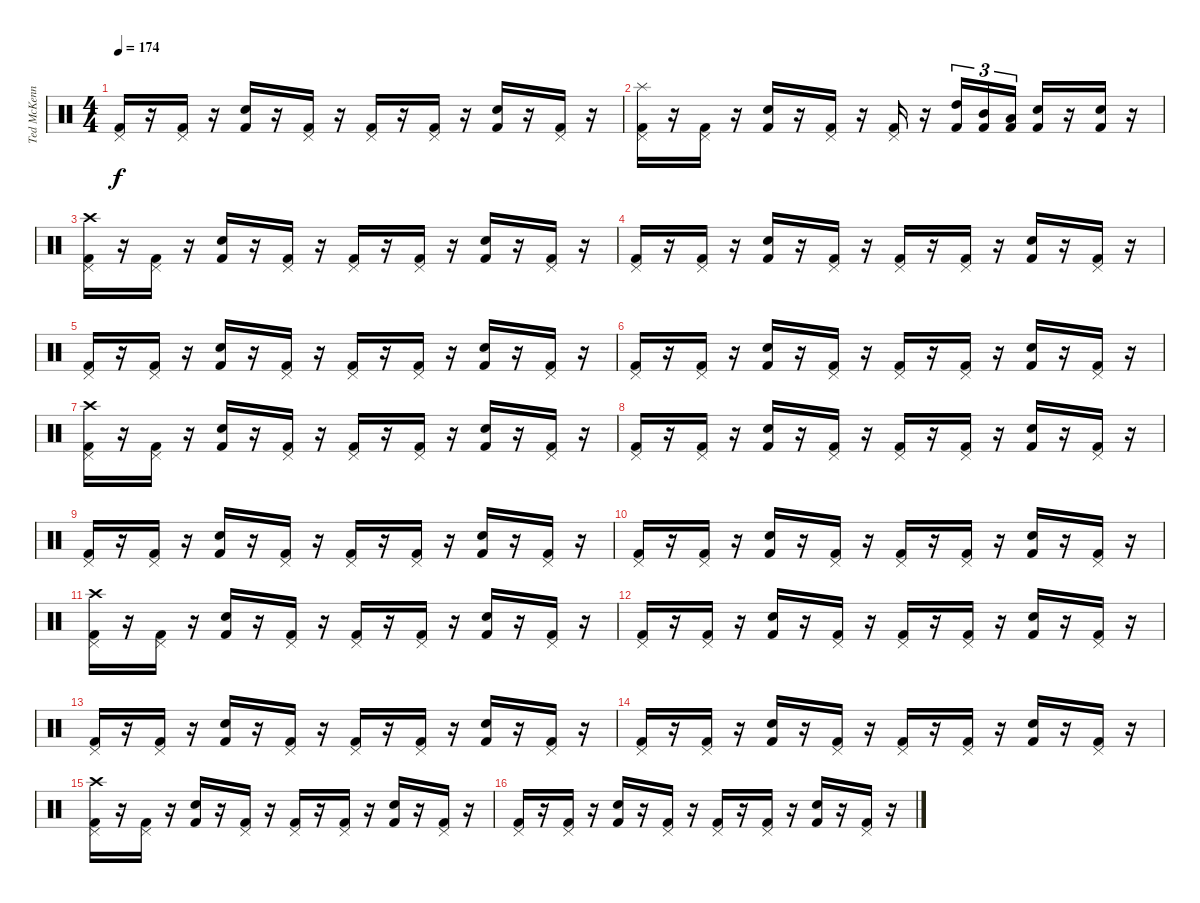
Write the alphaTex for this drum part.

\track ("Ted McKenna" "Ted McKenn") {instrument percussion}
\staff {score}
\articulation defaults
\ts (4 4)
\tempo 174
\clef neutral
\ks c
("Pedal Hi-Hat (hit)" "Kick (hit) 2").16{dy f} r.16 ("Pedal Hi-Hat (hit)" "Kick (hit) 2").16 r.16 ("Snare (hit) 2" "Kick (hit) 2").16 r.16 ("Pedal Hi-Hat (hit)" "Kick (hit) 2").16 r.16 ("Pedal Hi-Hat (hit)" "Kick (hit) 2").16 r.16 ("Pedal Hi-Hat (hit)" "Kick (hit) 2").16 r.16 ("Snare (hit) 2" "Kick (hit) 2").16 r.16 ("Pedal Hi-Hat (hit)" "Kick (hit) 2").16 r.16 |
("Splash (hit)" "Pedal Hi-Hat (hit)" "Kick (hit) 2").16 r.16 ("Pedal Hi-Hat (hit)" "Kick (hit) 2").16 r.16 ("Snare (hit) 2" "Kick (hit) 2").16 r.16 ("Pedal Hi-Hat (hit)" "Kick (hit) 2").16 r.16 ("Pedal Hi-Hat (hit)" "Kick (hit) 2").16 r.16 ("High Tom (hit)" "Kick (hit) 2").16{tu (3 2)} ("Mid Tom (hit)" "Kick (hit) 2").16{tu (3 2)} ("Low Tom (hit)" "Kick (hit) 2").16{tu (3 2)} ("Electric Snare (hit)" "Kick (hit) 2").16 r.16 ("Snare (hit) 2" "Kick (hit) 2").16 r.16 |
("Crash high (hit)" "Pedal Hi-Hat (hit)" "Kick (hit) 2").16 r.16 ("Pedal Hi-Hat (hit)" "Kick (hit) 2").16 r.16 ("Snare (hit) 2" "Kick (hit) 2").16 r.16 ("Pedal Hi-Hat (hit)" "Kick (hit) 2").16 r.16 ("Pedal Hi-Hat (hit)" "Kick (hit) 2").16 r.16 ("Pedal Hi-Hat (hit)" "Kick (hit) 2").16 r.16 ("Snare (hit) 2" "Kick (hit) 2").16 r.16 ("Pedal Hi-Hat (hit)" "Kick (hit) 2").16 r.16 |
("Pedal Hi-Hat (hit)" "Kick (hit) 2").16 r.16 ("Pedal Hi-Hat (hit)" "Kick (hit) 2").16 r.16 ("Snare (hit) 2" "Kick (hit) 2").16 r.16 ("Pedal Hi-Hat (hit)" "Kick (hit) 2").16 r.16 ("Pedal Hi-Hat (hit)" "Kick (hit) 2").16 r.16 ("Pedal Hi-Hat (hit)" "Kick (hit) 2").16 r.16 ("Snare (hit) 2" "Kick (hit) 2").16 r.16 ("Pedal Hi-Hat (hit)" "Kick (hit) 2").16 r.16 |
("Pedal Hi-Hat (hit)" "Kick (hit) 2").16 r.16 ("Pedal Hi-Hat (hit)" "Kick (hit) 2").16 r.16 ("Snare (hit) 2" "Kick (hit) 2").16 r.16 ("Pedal Hi-Hat (hit)" "Kick (hit) 2").16 r.16 ("Pedal Hi-Hat (hit)" "Kick (hit) 2").16 r.16 ("Pedal Hi-Hat (hit)" "Kick (hit) 2").16 r.16 ("Snare (hit) 2" "Kick (hit) 2").16 r.16 ("Pedal Hi-Hat (hit)" "Kick (hit) 2").16 r.16 |
("Pedal Hi-Hat (hit)" "Kick (hit) 2").16 r.16 ("Pedal Hi-Hat (hit)" "Kick (hit) 2").16 r.16 ("Snare (hit) 2" "Kick (hit) 2").16 r.16 ("Pedal Hi-Hat (hit)" "Kick (hit) 2").16 r.16 ("Pedal Hi-Hat (hit)" "Kick (hit) 2").16 r.16 ("Pedal Hi-Hat (hit)" "Kick (hit) 2").16 r.16 ("Snare (hit) 2" "Kick (hit) 2").16 r.16 ("Pedal Hi-Hat (hit)" "Kick (hit) 2").16 r.16 |
("Crash high (hit)" "Pedal Hi-Hat (hit)" "Kick (hit) 2").16 r.16 ("Pedal Hi-Hat (hit)" "Kick (hit) 2").16 r.16 ("Snare (hit) 2" "Kick (hit) 2").16 r.16 ("Pedal Hi-Hat (hit)" "Kick (hit) 2").16 r.16 ("Pedal Hi-Hat (hit)" "Kick (hit) 2").16 r.16 ("Pedal Hi-Hat (hit)" "Kick (hit) 2").16 r.16 ("Snare (hit) 2" "Kick (hit) 2").16 r.16 ("Pedal Hi-Hat (hit)" "Kick (hit) 2").16 r.16 |
("Pedal Hi-Hat (hit)" "Kick (hit) 2").16 r.16 ("Pedal Hi-Hat (hit)" "Kick (hit) 2").16 r.16 ("Snare (hit) 2" "Kick (hit) 2").16 r.16 ("Pedal Hi-Hat (hit)" "Kick (hit) 2").16 r.16 ("Pedal Hi-Hat (hit)" "Kick (hit) 2").16 r.16 ("Pedal Hi-Hat (hit)" "Kick (hit) 2").16 r.16 ("Snare (hit) 2" "Kick (hit) 2").16 r.16 ("Pedal Hi-Hat (hit)" "Kick (hit) 2").16 r.16 |
("Pedal Hi-Hat (hit)" "Kick (hit) 2").16 r.16 ("Pedal Hi-Hat (hit)" "Kick (hit) 2").16 r.16 ("Snare (hit) 2" "Kick (hit) 2").16 r.16 ("Pedal Hi-Hat (hit)" "Kick (hit) 2").16 r.16 ("Pedal Hi-Hat (hit)" "Kick (hit) 2").16 r.16 ("Pedal Hi-Hat (hit)" "Kick (hit) 2").16 r.16 ("Snare (hit) 2" "Kick (hit) 2").16 r.16 ("Pedal Hi-Hat (hit)" "Kick (hit) 2").16 r.16 |
("Pedal Hi-Hat (hit)" "Kick (hit) 2").16 r.16 ("Pedal Hi-Hat (hit)" "Kick (hit) 2").16 r.16 ("Snare (hit) 2" "Kick (hit) 2").16 r.16 ("Pedal Hi-Hat (hit)" "Kick (hit) 2").16 r.16 ("Pedal Hi-Hat (hit)" "Kick (hit) 2").16 r.16 ("Pedal Hi-Hat (hit)" "Kick (hit) 2").16 r.16 ("Snare (hit) 2" "Kick (hit) 2").16 r.16 ("Pedal Hi-Hat (hit)" "Kick (hit) 2").16 r.16 |
("Crash high (hit)" "Pedal Hi-Hat (hit)" "Kick (hit) 2").16 r.16 ("Pedal Hi-Hat (hit)" "Kick (hit) 2").16 r.16 ("Snare (hit) 2" "Kick (hit) 2").16 r.16 ("Pedal Hi-Hat (hit)" "Kick (hit) 2").16 r.16 ("Pedal Hi-Hat (hit)" "Kick (hit) 2").16 r.16 ("Pedal Hi-Hat (hit)" "Kick (hit) 2").16 r.16 ("Snare (hit) 2" "Kick (hit) 2").16 r.16 ("Pedal Hi-Hat (hit)" "Kick (hit) 2").16 r.16 |
("Pedal Hi-Hat (hit)" "Kick (hit) 2").16 r.16 ("Pedal Hi-Hat (hit)" "Kick (hit) 2").16 r.16 ("Snare (hit) 2" "Kick (hit) 2").16 r.16 ("Pedal Hi-Hat (hit)" "Kick (hit) 2").16 r.16 ("Pedal Hi-Hat (hit)" "Kick (hit) 2").16 r.16 ("Pedal Hi-Hat (hit)" "Kick (hit) 2").16 r.16 ("Snare (hit) 2" "Kick (hit) 2").16 r.16 ("Pedal Hi-Hat (hit)" "Kick (hit) 2").16 r.16 |
("Pedal Hi-Hat (hit)" "Kick (hit) 2").16 r.16 ("Pedal Hi-Hat (hit)" "Kick (hit) 2").16 r.16 ("Snare (hit) 2" "Kick (hit) 2").16 r.16 ("Pedal Hi-Hat (hit)" "Kick (hit) 2").16 r.16 ("Pedal Hi-Hat (hit)" "Kick (hit) 2").16 r.16 ("Pedal Hi-Hat (hit)" "Kick (hit) 2").16 r.16 ("Snare (hit) 2" "Kick (hit) 2").16 r.16 ("Pedal Hi-Hat (hit)" "Kick (hit) 2").16 r.16 |
("Pedal Hi-Hat (hit)" "Kick (hit) 2").16 r.16 ("Pedal Hi-Hat (hit)" "Kick (hit) 2").16 r.16 ("Snare (hit) 2" "Kick (hit) 2").16 r.16 ("Pedal Hi-Hat (hit)" "Kick (hit) 2").16 r.16 ("Pedal Hi-Hat (hit)" "Kick (hit) 2").16 r.16 ("Pedal Hi-Hat (hit)" "Kick (hit) 2").16 r.16 ("Snare (hit) 2" "Kick (hit) 2").16 r.16 ("Pedal Hi-Hat (hit)" "Kick (hit) 2").16 r.16 |
("Crash high (hit)" "Pedal Hi-Hat (hit)" "Kick (hit) 2").16 r.16 ("Pedal Hi-Hat (hit)" "Kick (hit) 2").16 r.16 ("Snare (hit) 2" "Kick (hit) 2").16 r.16 ("Pedal Hi-Hat (hit)" "Kick (hit) 2").16 r.16 ("Pedal Hi-Hat (hit)" "Kick (hit) 2").16 r.16 ("Pedal Hi-Hat (hit)" "Kick (hit) 2").16 r.16 ("Snare (hit) 2" "Kick (hit) 2").16 r.16 ("Pedal Hi-Hat (hit)" "Kick (hit) 2").16 r.16 |
("Pedal Hi-Hat (hit)" "Kick (hit) 2").16 r.16 ("Pedal Hi-Hat (hit)" "Kick (hit) 2").16 r.16 ("Snare (hit) 2" "Kick (hit) 2").16 r.16 ("Pedal Hi-Hat (hit)" "Kick (hit) 2").16 r.16 ("Pedal Hi-Hat (hit)" "Kick (hit) 2").16 r.16 ("Pedal Hi-Hat (hit)" "Kick (hit) 2").16 r.16 ("Snare (hit) 2" "Kick (hit) 2").16 r.16 ("Pedal Hi-Hat (hit)" "Kick (hit) 2").16 r.16
